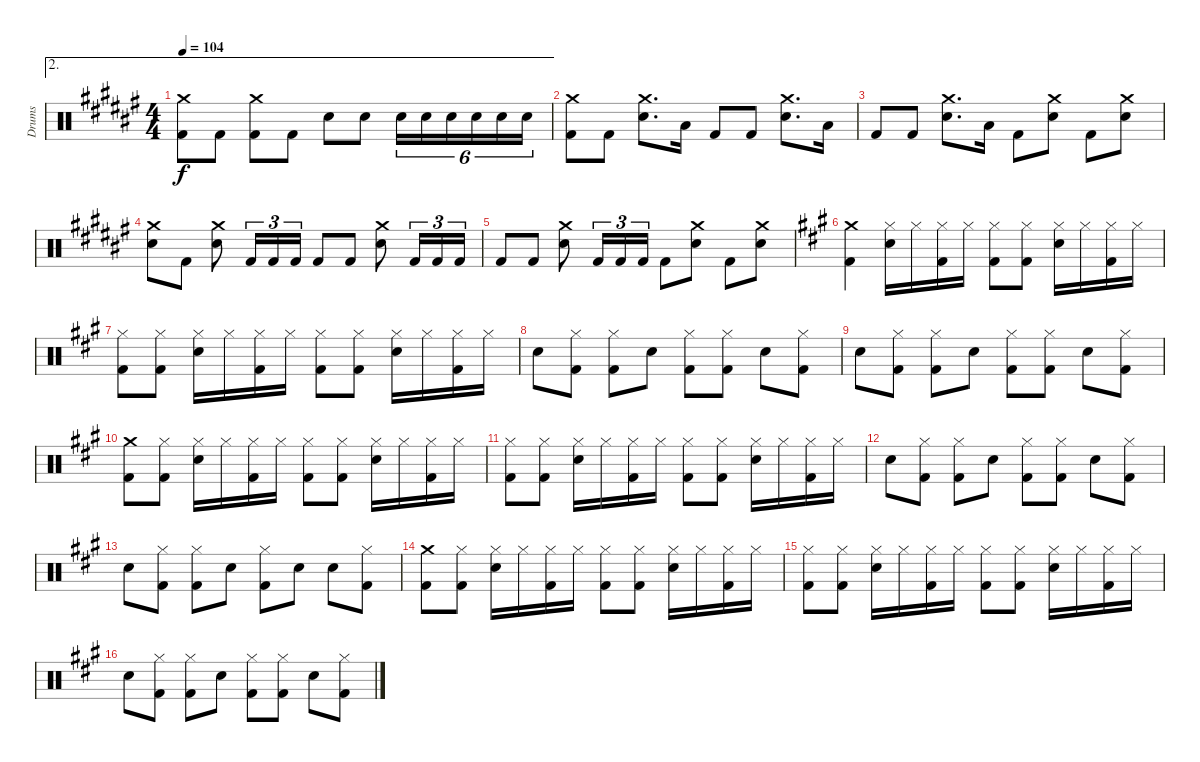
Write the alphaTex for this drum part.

\track ("Drums" "Drums") {instrument percussion}
\staff {score}
\articulation defaults
\ae 2
\ts (4 4)
\tempo 104
\clef neutral
\ks f#
("Crash medium (hit)" "Kick (hit) 2").8{dy f} "Kick (hit) 2".8 ("Crash medium (hit)" "Kick (hit) 2").8 "Kick (hit) 2".8 "Snare (hit) 2".8 "Snare (hit) 2".8 "Snare (hit) 2".16{tu (6 4)} "Snare (hit) 2".16{tu (6 4)} "Snare (hit) 2".16{tu (6 4)} "Snare (hit) 2".16{tu (6 4)} "Snare (hit) 2".16{tu (6 4)} "Snare (hit) 2".16{tu (6 4)} |
("Crash medium (hit)" "Kick (hit) 2").8 "Kick (hit) 2".8 ("Crash medium (hit)" "Snare (hit) 2").8{d} "Low Floor Tom (hit)".16 "Kick (hit) 2".8 "Kick (hit) 2".8 ("Crash medium (hit)" "Snare (hit) 2").8{d} "Low Floor Tom (hit)".16 |
"Kick (hit) 2".8 "Kick (hit) 2".8 ("Crash medium (hit)" "Snare (hit) 2").8{d} "Low Floor Tom (hit)".16 "Kick (hit) 2".8 ("Crash medium (hit)" "Snare (hit) 2").8 "Kick (hit) 2".8 ("Crash medium (hit)" "Snare (hit) 2").8 |
("Crash medium (hit)" "Snare (hit) 2").8 "Kick (hit) 2".8 ("Crash medium (hit)" "Snare (hit) 2").8 "Kick (hit) 2".16{tu (3 2)} "Kick (hit) 2".16{tu (3 2)} "Kick (hit) 2".16{tu (3 2)} "Kick (hit) 2".8 "Kick (hit) 2".8 ("Crash medium (hit)" "Snare (hit) 2").8 "Kick (hit) 2".16{tu (3 2)} "Kick (hit) 2".16{tu (3 2)} "Kick (hit) 2".16{tu (3 2)} |
"Kick (hit) 2".8 "Kick (hit) 2".8 ("Crash medium (hit)" "Snare (hit) 2").8 "Kick (hit) 2".16{tu (3 2)} "Kick (hit) 2".16{tu (3 2)} "Kick (hit) 2".16{tu (3 2)} "Kick (hit) 2".8 ("Crash medium (hit)" "Snare (hit) 2").8 "Kick (hit) 2".8 ("Crash medium (hit)" "Snare (hit) 2").8 |
\ks f#minor
("Crash medium (hit)" "Kick (hit) 2").4 ("Hi-Hat (closed)" "Snare (hit) 2").16 "Hi-Hat (closed)".16 ("Hi-Hat (closed)" "Kick (hit) 2").16 "Hi-Hat (closed)".16 ("Hi-Hat (closed)" "Kick (hit) 2").8 ("Hi-Hat (closed)" "Kick (hit) 2").8 ("Hi-Hat (closed)" "Snare (hit) 2").16 "Hi-Hat (closed)".16 ("Hi-Hat (closed)" "Kick (hit) 2").16 "Hi-Hat (closed)".16 |
("Hi-Hat (closed)" "Kick (hit) 2").8 ("Hi-Hat (closed)" "Kick (hit) 2").8 ("Hi-Hat (closed)" "Snare (hit) 2").16 "Hi-Hat (closed)".16 ("Hi-Hat (closed)" "Kick (hit) 2").16 "Hi-Hat (closed)".16 ("Hi-Hat (closed)" "Kick (hit) 2").8 ("Hi-Hat (closed)" "Kick (hit) 2").8 ("Hi-Hat (closed)" "Snare (hit) 2").16 "Hi-Hat (closed)".16 ("Hi-Hat (closed)" "Kick (hit) 2").16 "Hi-Hat (closed)".16 |
"Snare (hit) 2".8 ("Hi-Hat (closed)" "Kick (hit) 2").8 ("Hi-Hat (closed)" "Kick (hit) 2").8 "Snare (hit) 2".8 ("Hi-Hat (closed)" "Kick (hit) 2").8 ("Hi-Hat (closed)" "Kick (hit) 2").8 "Snare (hit) 2".8 ("Hi-Hat (closed)" "Kick (hit) 2").8 |
"Snare (hit) 2".8 ("Hi-Hat (closed)" "Kick (hit) 2").8 ("Hi-Hat (closed)" "Kick (hit) 2").8 "Snare (hit) 2".8 ("Hi-Hat (closed)" "Kick (hit) 2").8 ("Hi-Hat (closed)" "Kick (hit) 2").8 "Snare (hit) 2".8 ("Hi-Hat (closed)" "Kick (hit) 2").8 |
("Crash medium (hit)" "Kick (hit) 2").8 ("Hi-Hat (closed)" "Kick (hit) 2").8 ("Hi-Hat (closed)" "Snare (hit) 2").16 "Hi-Hat (closed)".16 ("Hi-Hat (closed)" "Kick (hit) 2").16 "Hi-Hat (closed)".16 ("Hi-Hat (closed)" "Kick (hit) 2").8 ("Hi-Hat (closed)" "Kick (hit) 2").8 ("Hi-Hat (closed)" "Snare (hit) 2").16 "Hi-Hat (closed)".16 ("Hi-Hat (closed)" "Kick (hit) 2").16 "Hi-Hat (closed)".16 |
("Hi-Hat (closed)" "Kick (hit) 2").8 ("Hi-Hat (closed)" "Kick (hit) 2").8 ("Hi-Hat (closed)" "Snare (hit) 2").16 "Hi-Hat (closed)".16 ("Hi-Hat (closed)" "Kick (hit) 2").16 "Hi-Hat (closed)".16 ("Hi-Hat (closed)" "Kick (hit) 2").8 ("Hi-Hat (closed)" "Kick (hit) 2").8 ("Hi-Hat (closed)" "Snare (hit) 2").16 "Hi-Hat (closed)".16 ("Hi-Hat (closed)" "Kick (hit) 2").16 "Hi-Hat (closed)".16 |
"Snare (hit) 2".8 ("Hi-Hat (closed)" "Kick (hit) 2").8 ("Hi-Hat (closed)" "Kick (hit) 2").8 "Snare (hit) 2".8 ("Hi-Hat (closed)" "Kick (hit) 2").8 ("Hi-Hat (closed)" "Kick (hit) 2").8 "Snare (hit) 2".8 ("Hi-Hat (closed)" "Kick (hit) 2").8 |
"Snare (hit) 2".8 ("Hi-Hat (closed)" "Kick (hit) 2").8 ("Hi-Hat (closed)" "Kick (hit) 2").8 "Snare (hit) 2".8 ("Hi-Hat (closed)" "Kick (hit) 2").8 "Snare (hit) 2".8 "Snare (hit) 2".8 ("Hi-Hat (closed)" "Kick (hit) 2").8 |
("Crash medium (hit)" "Kick (hit) 2").8 ("Hi-Hat (closed)" "Kick (hit) 2").8 ("Hi-Hat (closed)" "Snare (hit) 2").16 "Hi-Hat (closed)".16 ("Hi-Hat (closed)" "Kick (hit) 2").16 "Hi-Hat (closed)".16 ("Hi-Hat (closed)" "Kick (hit) 2").8 ("Hi-Hat (closed)" "Kick (hit) 2").8 ("Hi-Hat (closed)" "Snare (hit) 2").16 "Hi-Hat (closed)".16 ("Hi-Hat (closed)" "Kick (hit) 2").16 "Hi-Hat (closed)".16 |
("Hi-Hat (closed)" "Kick (hit) 2").8 ("Hi-Hat (closed)" "Kick (hit) 2").8 ("Hi-Hat (closed)" "Snare (hit) 2").16 "Hi-Hat (closed)".16 ("Hi-Hat (closed)" "Kick (hit) 2").16 "Hi-Hat (closed)".16 ("Hi-Hat (closed)" "Kick (hit) 2").8 ("Hi-Hat (closed)" "Kick (hit) 2").8 ("Hi-Hat (closed)" "Snare (hit) 2").16 "Hi-Hat (closed)".16 ("Hi-Hat (closed)" "Kick (hit) 2").16 "Hi-Hat (closed)".16 |
"Snare (hit) 2".8 ("Hi-Hat (closed)" "Kick (hit) 2").8 ("Hi-Hat (closed)" "Kick (hit) 2").8 "Snare (hit) 2".8 ("Hi-Hat (closed)" "Kick (hit) 2").8 ("Hi-Hat (closed)" "Kick (hit) 2").8 "Snare (hit) 2".8 ("Hi-Hat (closed)" "Kick (hit) 2").8
